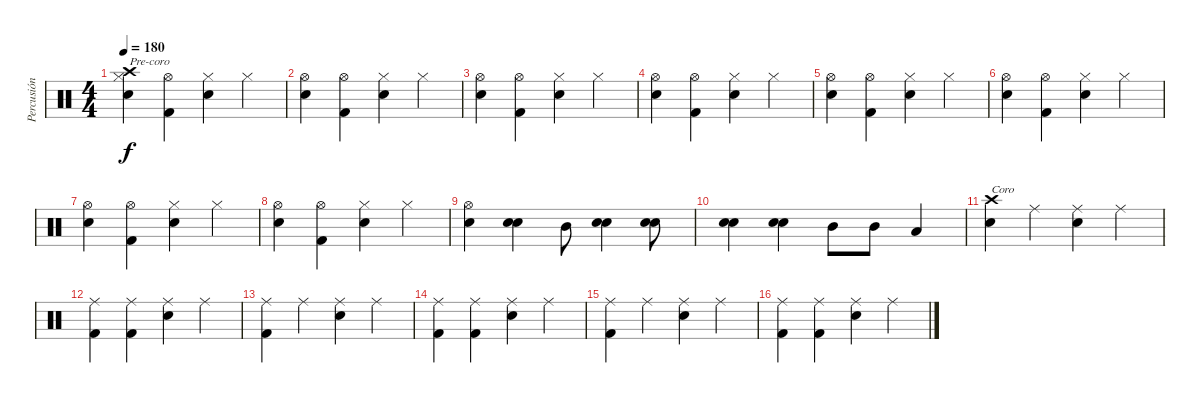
\track ("Percusión" "Percusión") {instrument percussion}
\staff {score}
\articulation defaults
\ts (4 4)
\tempo 180
\clef neutral
\ks c
("Hi-Hat (closed)" "Crash high (hit)" "Snare (hit) 2").4{txt "Pre-coro" dy f} ("Hi-Hat (open)" "Kick (hit) 2").4 ("Hi-Hat (closed)" "Snare (hit) 2").4 "Hi-Hat (closed)".4 |
("Hi-Hat (open)" "Snare (hit) 2").4 ("Hi-Hat (open)" "Kick (hit) 2").4 ("Hi-Hat (closed)" "Snare (hit) 2").4 "Hi-Hat (closed)".4 |
("Hi-Hat (open)" "Snare (hit) 2").4 ("Hi-Hat (open)" "Kick (hit) 2").4 ("Hi-Hat (closed)" "Snare (hit) 2").4 "Hi-Hat (closed)".4 |
("Hi-Hat (open)" "Snare (hit) 2").4 ("Hi-Hat (open)" "Kick (hit) 2").4 ("Hi-Hat (closed)" "Snare (hit) 2").4 "Hi-Hat (closed)".4 |
("Hi-Hat (open)" "Snare (hit) 2").4 ("Hi-Hat (open)" "Kick (hit) 2").4 ("Hi-Hat (closed)" "Snare (hit) 2").4 "Hi-Hat (closed)".4 |
("Hi-Hat (open)" "Snare (hit) 2").4 ("Hi-Hat (open)" "Kick (hit) 2").4 ("Hi-Hat (closed)" "Snare (hit) 2").4 "Hi-Hat (closed)".4 |
("Hi-Hat (open)" "Snare (hit) 2").4 ("Hi-Hat (open)" "Kick (hit) 2").4 ("Hi-Hat (closed)" "Snare (hit) 2").4 "Hi-Hat (closed)".4 |
("Hi-Hat (open)" "Snare (hit) 2").4 ("Hi-Hat (open)" "Kick (hit) 2").4 ("Hi-Hat (closed)" "Snare (hit) 2").4 "Hi-Hat (closed)".4 |
("Hi-Hat (open)" "Snare (hit) 2").4 ("Snare (hit) 2" "Snare (hit) 2").4{bu 240} "Mid Tom (hit)".8 ("Snare (hit) 2" "Snare (hit) 2").4{bu 240} ("Snare (hit) 2" "Snare (hit) 2").8{bu 240} |
("Snare (hit) 2" "Snare (hit) 2").4{bu 240} ("Snare (hit) 2" "Snare (hit) 2").4{bu 240} "Mid Tom (hit)".8 "Mid Tom (hit)".8 "Low Tom (hit)".4 |
("Crash high (hit)" "Snare (hit) 2").4{txt "Coro"} "Ride (middle)".4 ("Ride (middle)" "Snare (hit) 2").4 "Ride (middle)".4 |
("Ride (middle)" "Kick (hit) 2").4 ("Ride (middle)" "Kick (hit) 2").4 ("Ride (middle)" "Snare (hit) 2").4 "Ride (middle)".4 |
("Ride (middle)" "Kick (hit) 2").4 "Ride (middle)".4 ("Ride (middle)" "Snare (hit) 2").4 "Ride (middle)".4 |
("Ride (middle)" "Kick (hit) 2").4 ("Ride (middle)" "Kick (hit) 2").4 ("Ride (middle)" "Snare (hit) 2").4 "Ride (middle)".4 |
("Ride (middle)" "Kick (hit) 2").4 "Ride (middle)".4 ("Ride (middle)" "Snare (hit) 2").4 "Ride (middle)".4 |
("Ride (middle)" "Kick (hit) 2").4 ("Ride (middle)" "Kick (hit) 2").4 ("Ride (middle)" "Snare (hit) 2").4 "Ride (middle)".4
